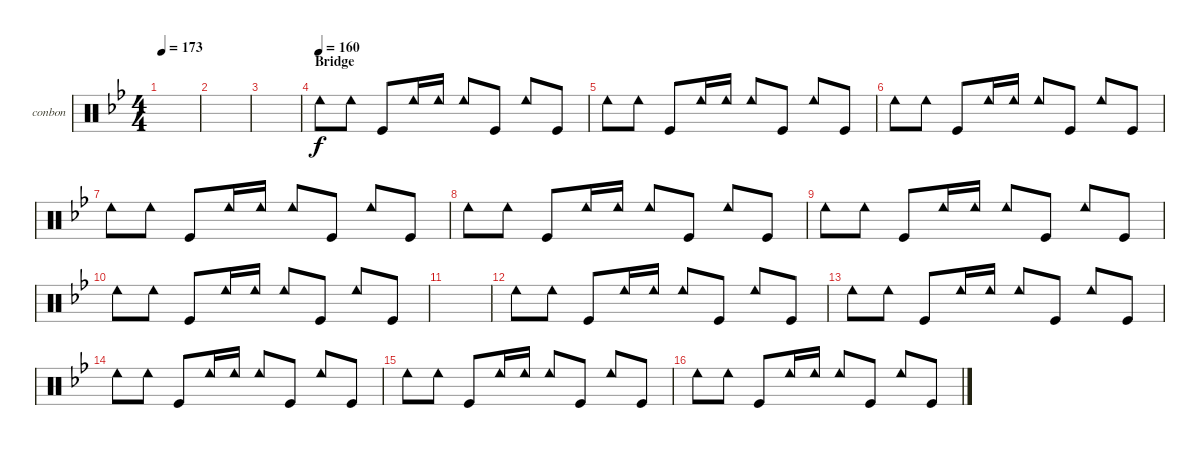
\defaultSystemsLayout 4
\bracketExtendMode groupsimilarinstruments
\firstSystemTrackNameOrientation horizontal
\otherSystemsTrackNameOrientation horizontal
\track ("Bongos N Congas" "conbon") {instrument percussion}
\staff {score}
\articulation defaults
\ts (4 4)
\tempo 173
\clef neutral
\ks bb
|
|
|
\section ("" "Bridge")
\tempo (160)
"Cowbell low (hit)".8 "Cowbell low (hit)".8 "Kick (hit)".8 "Cowbell low (hit)".16 "Cowbell low (hit)".16 "Cowbell low (hit)".8 "Kick (hit)".8 "Cowbell low (hit)".8 "Kick (hit)".8 |
"Cowbell low (hit)".8 "Cowbell low (hit)".8 "Kick (hit)".8 "Cowbell low (hit)".16 "Cowbell low (hit)".16 "Cowbell low (hit)".8 "Kick (hit)".8 "Cowbell low (hit)".8 "Kick (hit)".8 |
"Cowbell low (hit)".8 "Cowbell low (hit)".8 "Kick (hit)".8 "Cowbell low (hit)".16 "Cowbell low (hit)".16 "Cowbell low (hit)".8 "Kick (hit)".8 "Cowbell low (hit)".8 "Kick (hit)".8 |
"Cowbell low (hit)".8 "Cowbell low (hit)".8 "Kick (hit)".8 "Cowbell low (hit)".16 "Cowbell low (hit)".16 "Cowbell low (hit)".8 "Kick (hit)".8 "Cowbell low (hit)".8 "Kick (hit)".8 |
"Cowbell low (hit)".8 "Cowbell low (hit)".8 "Kick (hit)".8 "Cowbell low (hit)".16 "Cowbell low (hit)".16 "Cowbell low (hit)".8 "Kick (hit)".8 "Cowbell low (hit)".8 "Kick (hit)".8 |
"Cowbell low (hit)".8 "Cowbell low (hit)".8 "Kick (hit)".8 "Cowbell low (hit)".16 "Cowbell low (hit)".16 "Cowbell low (hit)".8 "Kick (hit)".8 "Cowbell low (hit)".8 "Kick (hit)".8 |
"Cowbell low (hit)".8 "Cowbell low (hit)".8 "Kick (hit)".8 "Cowbell low (hit)".16 "Cowbell low (hit)".16 "Cowbell low (hit)".8 "Kick (hit)".8 "Cowbell low (hit)".8 "Kick (hit)".8 |
|
"Cowbell low (hit)".8 "Cowbell low (hit)".8 "Kick (hit)".8 "Cowbell low (hit)".16 "Cowbell low (hit)".16 "Cowbell low (hit)".8 "Kick (hit)".8 "Cowbell low (hit)".8 "Kick (hit)".8 |
"Cowbell low (hit)".8 "Cowbell low (hit)".8 "Kick (hit)".8 "Cowbell low (hit)".16 "Cowbell low (hit)".16 "Cowbell low (hit)".8 "Kick (hit)".8 "Cowbell low (hit)".8 "Kick (hit)".8 |
"Cowbell low (hit)".8 "Cowbell low (hit)".8 "Kick (hit)".8 "Cowbell low (hit)".16 "Cowbell low (hit)".16 "Cowbell low (hit)".8 "Kick (hit)".8 "Cowbell low (hit)".8 "Kick (hit)".8 |
"Cowbell low (hit)".8 "Cowbell low (hit)".8 "Kick (hit)".8 "Cowbell low (hit)".16 "Cowbell low (hit)".16 "Cowbell low (hit)".8 "Kick (hit)".8 "Cowbell low (hit)".8 "Kick (hit)".8 |
"Cowbell low (hit)".8 "Cowbell low (hit)".8 "Kick (hit)".8 "Cowbell low (hit)".16 "Cowbell low (hit)".16 "Cowbell low (hit)".8 "Kick (hit)".8 "Cowbell low (hit)".8 "Kick (hit)".8
